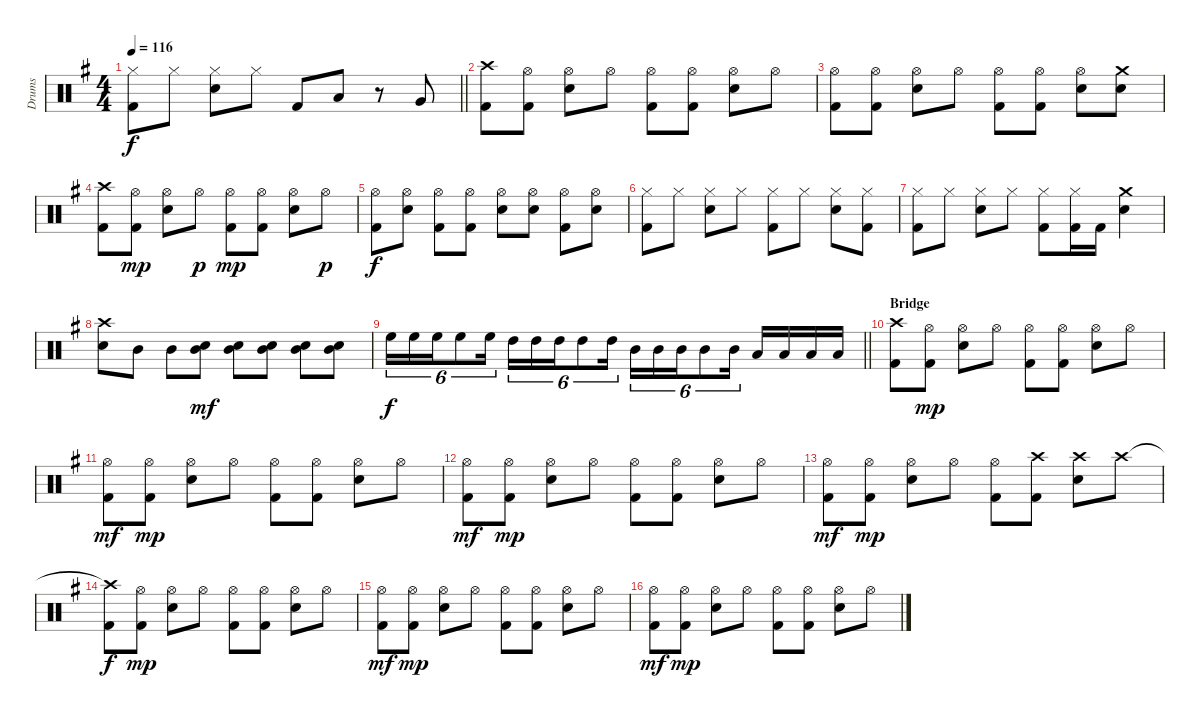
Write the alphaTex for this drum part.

\track ("Drums" "Drums") {instrument percussion}
\staff {score}
\articulation defaults
\ts (4 4)
\tempo 116
\clef neutral
\barLineRight lightlight
\ks g
("Hi-Hat (closed)" "Kick (hit) 2").8{dy f} "Hi-Hat (closed)".8 ("Hi-Hat (closed)" "Electric Snare (hit)").8 "Hi-Hat (closed)".8 "Kick (hit) 2".8 "Low Tom (hit)".8 r.8 "Very Low Tom (hit)".8 |
("Crash high (hit)" "Kick (hit) 2").8 ("Hi-Hat (open)" "Kick (hit) 2").8 ("Hi-Hat (open)" "Electric Snare (hit)").8 "Hi-Hat (open)".8 ("Hi-Hat (open)" "Kick (hit) 2").8 ("Hi-Hat (open)" "Kick (hit) 2").8 ("Hi-Hat (open)" "Electric Snare (hit)").8 "Hi-Hat (open)".8 |
("Hi-Hat (open)" "Kick (hit) 2").8 ("Hi-Hat (open)" "Kick (hit) 2").8 ("Hi-Hat (open)" "Electric Snare (hit)").8 "Hi-Hat (open)".8 ("Hi-Hat (open)" "Kick (hit) 2").8 ("Hi-Hat (open)" "Kick (hit) 2").8 ("Hi-Hat (open)" "Electric Snare (hit)").8 ("Crash medium (hit)" "Electric Snare (hit)").8 |
("Crash high (hit)" "Kick (hit) 2").8 ("Hi-Hat (open)" "Kick (hit) 2").8{dy mp} ("Hi-Hat (open)" "Electric Snare (hit)").8 "Hi-Hat (open)".8{dy p} ("Hi-Hat (open)" "Kick (hit) 2").8{dy mp} ("Hi-Hat (open)" "Kick (hit) 2").8 ("Hi-Hat (open)" "Electric Snare (hit)").8 "Hi-Hat (open)".8{dy p} |
("Hi-Hat (open)" "Kick (hit) 2").8{dy f} ("Hi-Hat (open)" "Electric Snare (hit)").8 ("Hi-Hat (open)" "Kick (hit) 2").8 ("Hi-Hat (open)" "Kick (hit) 2").8 ("Hi-Hat (open)" "Electric Snare (hit)").8 ("Hi-Hat (open)" "Electric Snare (hit)").8 ("Hi-Hat (open)" "Kick (hit) 2").8 ("Hi-Hat (open)" "Electric Snare (hit)").8 |
("Hi-Hat (closed)" "Kick (hit) 2").8 "Hi-Hat (closed)".8 ("Hi-Hat (closed)" "Electric Snare (hit)").8 "Hi-Hat (closed)".8 ("Hi-Hat (closed)" "Kick (hit) 2").8 "Hi-Hat (closed)".8 ("Hi-Hat (closed)" "Electric Snare (hit)").8 ("Hi-Hat (closed)" "Kick (hit) 2").8 |
("Hi-Hat (closed)" "Kick (hit) 2").8 "Hi-Hat (closed)".8 ("Hi-Hat (closed)" "Electric Snare (hit)").8 "Hi-Hat (closed)".8 ("Hi-Hat (closed)" "Kick (hit) 2").8 ("Hi-Hat (closed)" "Kick (hit) 2").16 "Kick (hit) 2".16 ("Crash medium (hit)" "Electric Snare (hit)").4 |
("Crash high (hit)" "Electric Snare (hit)").8 "Mid Tom (hit)".8 "Mid Tom (hit)".8 ("Electric Snare (hit)" "Mid Tom (hit)").8{dy mf} ("Electric Snare (hit)" "Mid Tom (hit)").8 ("Electric Snare (hit)" "Mid Tom (hit)").8 ("Electric Snare (hit)" "Mid Tom (hit)").8 ("Electric Snare (hit)" "Mid Tom (hit)").8 |
\barLineRight lightlight "High Floor Tom (hit)".16{tu (6 4) dy f} "High Floor Tom (hit)".16{tu (6 4)} "High Floor Tom (hit)".16{tu (6 4)} "High Floor Tom (hit)".8{tu (6 4)} "High Floor Tom (hit)".16{tu (6 4)} "High Tom (hit)".16{tu (6 4)} "High Tom (hit)".16{tu (6 4)} "High Tom (hit)".16{tu (6 4)} "High Tom (hit)".8{tu (6 4)} "High Tom (hit)".16{tu (6 4)} "Mid Tom (hit)".16{tu (6 4)} "Mid Tom (hit)".16{tu (6 4)} "Mid Tom (hit)".16{tu (6 4)} "Mid Tom (hit)".8{tu (6 4)} "Mid Tom (hit)".16{tu (6 4)} "Low Tom (hit)".16 "Low Tom (hit)".16 "Low Tom (hit)".16 "Low Tom (hit)".16
|
\section ("" "Bridge")
("Crash high (hit)" "Kick (hit) 2").8 ("Hi-Hat (open)" "Kick (hit) 2").8{dy mp} ("Hi-Hat (open)" "Electric Snare (hit)").8 "Hi-Hat (open)".8 ("Hi-Hat (open)" "Kick (hit) 2").8 ("Hi-Hat (open)" "Kick (hit) 2").8 ("Hi-Hat (open)" "Electric Snare (hit)").8 "Hi-Hat (open)".8 |
("Hi-Hat (open)" "Kick (hit) 2").8{dy mf} ("Hi-Hat (open)" "Kick (hit) 2").8{dy mp} ("Hi-Hat (open)" "Electric Snare (hit)").8 "Hi-Hat (open)".8 ("Hi-Hat (open)" "Kick (hit) 2").8 ("Hi-Hat (open)" "Kick (hit) 2").8 ("Hi-Hat (open)" "Electric Snare (hit)").8 "Hi-Hat (open)".8 |
("Hi-Hat (open)" "Kick (hit) 2").8{dy mf} ("Hi-Hat (open)" "Kick (hit) 2").8{dy mp} ("Hi-Hat (open)" "Electric Snare (hit)").8 "Hi-Hat (open)".8 ("Hi-Hat (open)" "Kick (hit) 2").8 ("Hi-Hat (open)" "Kick (hit) 2").8 ("Hi-Hat (open)" "Electric Snare (hit)").8 "Hi-Hat (open)".8 |
("Hi-Hat (open)" "Kick (hit) 2").8{dy mf} ("Hi-Hat (open)" "Kick (hit) 2").8{dy mp} ("Hi-Hat (open)" "Electric Snare (hit)").8 "Hi-Hat (open)".8 ("Hi-Hat (open)" "Kick (hit) 2").8 ("Crash high (hit)" "Kick (hit) 2").8 ("Crash high (hit)" "Electric Snare (hit)").8 "Crash high (hit)".8 |
("Crash high (hit)"{t} "Kick (hit) 2").8{dy f} ("Hi-Hat (open)" "Kick (hit) 2").8{dy mp} ("Hi-Hat (open)" "Electric Snare (hit)").8 "Hi-Hat (open)".8 ("Hi-Hat (open)" "Kick (hit) 2").8 ("Hi-Hat (open)" "Kick (hit) 2").8 ("Hi-Hat (open)" "Electric Snare (hit)").8 "Hi-Hat (open)".8 |
("Hi-Hat (open)" "Kick (hit) 2").8{dy mf} ("Hi-Hat (open)" "Kick (hit) 2").8{dy mp} ("Hi-Hat (open)" "Electric Snare (hit)").8 "Hi-Hat (open)".8 ("Hi-Hat (open)" "Kick (hit) 2").8 ("Hi-Hat (open)" "Kick (hit) 2").8 ("Hi-Hat (open)" "Electric Snare (hit)").8 "Hi-Hat (open)".8 |
("Hi-Hat (open)" "Kick (hit) 2").8{dy mf} ("Hi-Hat (open)" "Kick (hit) 2").8{dy mp} ("Hi-Hat (open)" "Electric Snare (hit)").8 "Hi-Hat (open)".8 ("Hi-Hat (open)" "Kick (hit) 2").8 ("Hi-Hat (open)" "Kick (hit) 2").8 ("Hi-Hat (open)" "Electric Snare (hit)").8 "Hi-Hat (open)".8
